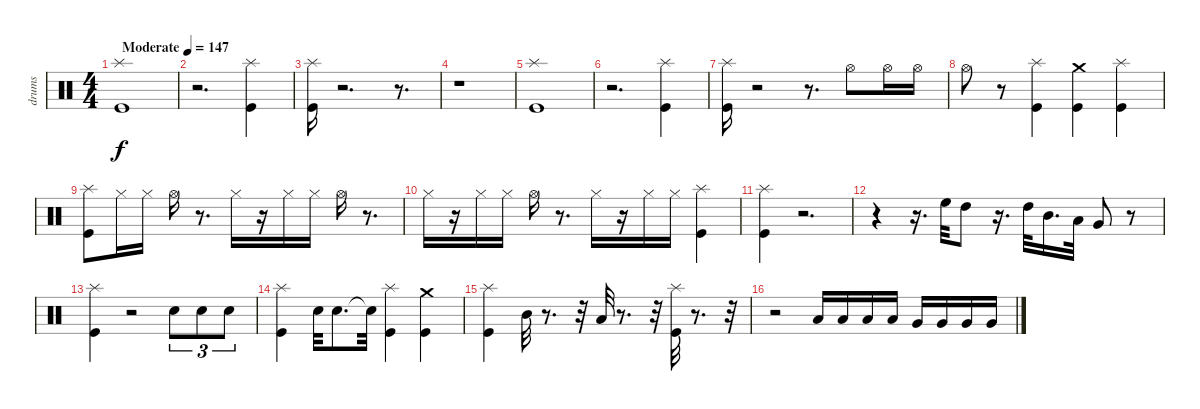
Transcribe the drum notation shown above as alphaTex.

\track ("drums" "drums") {instrument percussion}
\staff {score}
\articulation defaults
\ts (4 4)
\tempo (147 "Moderate")
\clef neutral
\ks c
("Splash (hit)" "Kick (hit)").1{dy f} |
r.2{d} ("Splash (hit)" "Kick (hit)").4 |
("Kick (hit)" "Splash (hit)").16 r.2{d} r.8{d} |
r.1 |
("Splash (hit)" "Kick (hit)").1 |
r.2{d} ("Splash (hit)" "Kick (hit)").4 |
("Kick (hit)" "Splash (hit)").16 r.2 r.8{d} "Hi-Hat (open)".8 "Hi-Hat (open)".16 "Hi-Hat (open)".16 |
"Hi-Hat (open)".8 r.8 ("Splash (hit)" "Kick (hit)").4 ("Crash medium (hit)" "Kick (hit)").4 ("Splash (hit)" "Kick (hit)").4 |
("Splash (hit)" "Kick (hit)").8 "Hi-Hat (closed)".16 "Hi-Hat (closed)".16 "Hi-Hat (open)".16 r.8{d} "Hi-Hat (closed)".16 r.16 "Hi-Hat (closed)".16 "Hi-Hat (closed)".16 "Hi-Hat (open)".16 r.8{d} |
"Hi-Hat (closed)".16 r.16 "Hi-Hat (closed)".16 "Hi-Hat (closed)".16 "Hi-Hat (open)".16 r.8{d} "Hi-Hat (closed)".16 r.16 "Hi-Hat (closed)".16 "Hi-Hat (closed)".16 ("Kick (hit)" "Splash (hit)").4 |
("Splash (hit)" "Kick (hit)").4 r.2{d} |
r.4 r.16{d} "High Floor Tom (hit)".32 "High Tom (hit)".8 r.16{d} "High Tom (hit)".32 "Mid Tom (hit)".16{d} "Low Tom (hit)".32 "Very Low Tom (hit)".8 r.8 |
("Splash (hit)" "Kick (hit)").4 r.2 "Snare (hit) 2".8{tu (3 2)} "Snare (hit) 2".8{tu (3 2)} "Snare (hit) 2".8{tu (3 2)} |
("Splash (hit)" "Kick (hit)").4 "Snare (hit) 2".32 "Snare (hit) 2".8{d} "Snare (hit)"{t}.32 ("Kick (hit)" "Splash (hit)").4 ("Crash medium (hit)" "Kick (hit)").4 |
("Splash (hit)" "Kick (hit)").4 "Mid Tom (hit)".32 r.8{d} r.32 "Low Tom (hit)".32 r.8{d} r.32 ("Kick (hit)" "Splash (hit)").32 r.8{d} r.32 |
r.2 "Low Tom (hit)".16 "Low Tom (hit)".16 "Low Tom (hit)".16 "Low Tom (hit)".16 "Very Low Tom (hit)".16 "Very Low Tom (hit)".16 "Very Low Tom (hit)".16 "Very Low Tom (hit)".16
